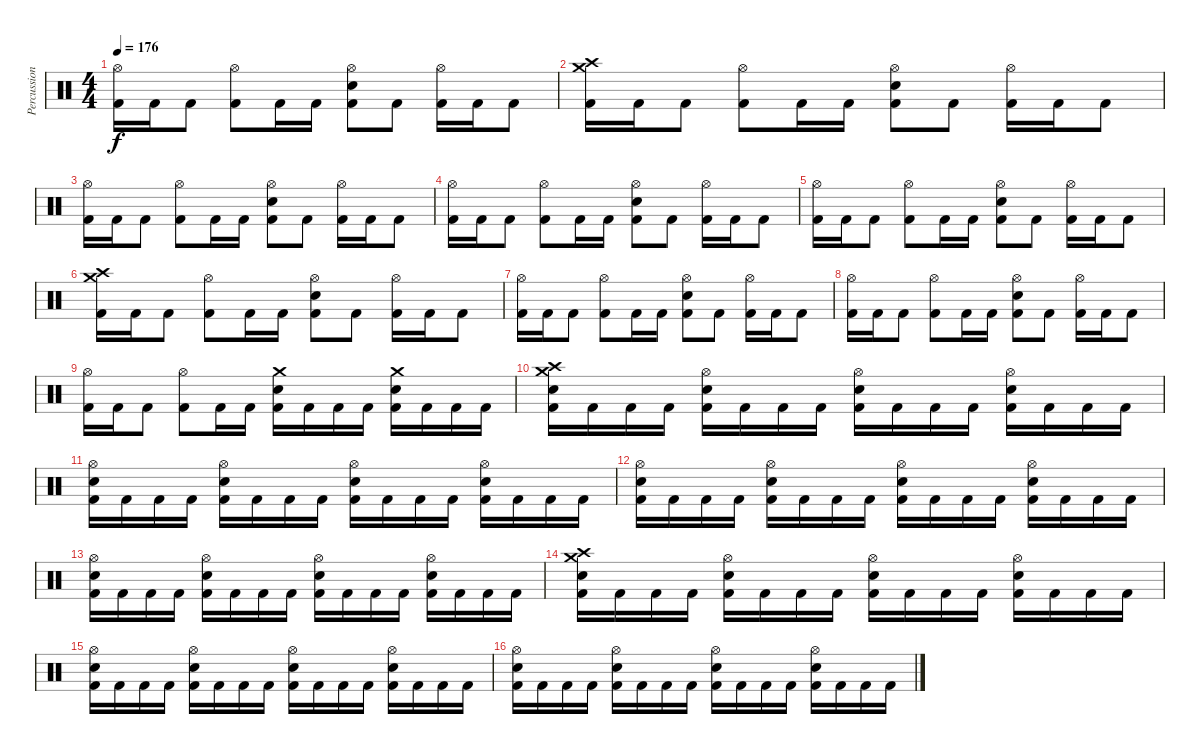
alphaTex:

\track ("Percussion" "Percussion") {instrument percussion}
\staff {score}
\articulation defaults
\ts (4 4)
\tempo 176
\clef neutral
\ks c
("Hi-Hat (open)" "Kick (hit) 2").16{dy f} "Kick (hit) 2".16 "Kick (hit) 2".8 ("Hi-Hat (open)" "Kick (hit) 2").8 "Kick (hit) 2".16 "Kick (hit) 2".16 ("Hi-Hat (open)" "Snare (hit) 2" "Kick (hit) 2").8 "Kick (hit) 2".8 ("Hi-Hat (open)" "Kick (hit) 2").16 "Kick (hit) 2".16 "Kick (hit) 2".8 |
("Crash high (hit)" "Crash medium (hit)" "Kick (hit) 2").16 "Kick (hit) 2".16 "Kick (hit) 2".8 ("Hi-Hat (open)" "Kick (hit) 2").8 "Kick (hit) 2".16 "Kick (hit) 2".16 ("Hi-Hat (open)" "Snare (hit) 2" "Kick (hit) 2").8 "Kick (hit) 2".8 ("Hi-Hat (open)" "Kick (hit) 2").16 "Kick (hit) 2".16 "Kick (hit) 2".8 |
("Hi-Hat (open)" "Kick (hit) 2").16 "Kick (hit) 2".16 "Kick (hit) 2".8 ("Hi-Hat (open)" "Kick (hit) 2").8 "Kick (hit) 2".16 "Kick (hit) 2".16 ("Hi-Hat (open)" "Snare (hit) 2" "Kick (hit) 2").8 "Kick (hit) 2".8 ("Hi-Hat (open)" "Kick (hit) 2").16 "Kick (hit) 2".16 "Kick (hit) 2".8 |
("Hi-Hat (open)" "Kick (hit) 2").16 "Kick (hit) 2".16 "Kick (hit) 2".8 ("Hi-Hat (open)" "Kick (hit) 2").8 "Kick (hit) 2".16 "Kick (hit) 2".16 ("Hi-Hat (open)" "Snare (hit) 2" "Kick (hit) 2").8 "Kick (hit) 2".8 ("Hi-Hat (open)" "Kick (hit) 2").16 "Kick (hit) 2".16 "Kick (hit) 2".8 |
("Hi-Hat (open)" "Kick (hit) 2").16 "Kick (hit) 2".16 "Kick (hit) 2".8 ("Hi-Hat (open)" "Kick (hit) 2").8 "Kick (hit) 2".16 "Kick (hit) 2".16 ("Hi-Hat (open)" "Snare (hit) 2" "Kick (hit) 2").8 "Kick (hit) 2".8 ("Hi-Hat (open)" "Kick (hit) 2").16 "Kick (hit) 2".16 "Kick (hit) 2".8 |
("Crash high (hit)" "Crash medium (hit)" "Kick (hit) 2").16 "Kick (hit) 2".16 "Kick (hit) 2".8 ("Hi-Hat (open)" "Kick (hit) 2").8 "Kick (hit) 2".16 "Kick (hit) 2".16 ("Hi-Hat (open)" "Snare (hit) 2" "Kick (hit) 2").8 "Kick (hit) 2".8 ("Hi-Hat (open)" "Kick (hit) 2").16 "Kick (hit) 2".16 "Kick (hit) 2".8 |
("Hi-Hat (open)" "Kick (hit) 2").16 "Kick (hit) 2".16 "Kick (hit) 2".8 ("Hi-Hat (open)" "Kick (hit) 2").8 "Kick (hit) 2".16 "Kick (hit) 2".16 ("Hi-Hat (open)" "Snare (hit) 2" "Kick (hit) 2").8 "Kick (hit) 2".8 ("Hi-Hat (open)" "Kick (hit) 2").16 "Kick (hit) 2".16 "Kick (hit) 2".8 |
("Hi-Hat (open)" "Kick (hit) 2").16 "Kick (hit) 2".16 "Kick (hit) 2".8 ("Hi-Hat (open)" "Kick (hit) 2").8 "Kick (hit) 2".16 "Kick (hit) 2".16 ("Hi-Hat (open)" "Snare (hit) 2" "Kick (hit) 2").8 "Kick (hit) 2".8 ("Hi-Hat (open)" "Kick (hit) 2").16 "Kick (hit) 2".16 "Kick (hit) 2".8 |
("Hi-Hat (open)" "Kick (hit) 2").16 "Kick (hit) 2".16 "Kick (hit) 2".8 ("Hi-Hat (open)" "Kick (hit) 2").8 "Kick (hit) 2".16 "Kick (hit) 2".16 ("Crash medium (hit)" "Snare (hit) 2" "Kick (hit) 2").16 "Kick (hit) 2".16 "Kick (hit) 2".16 "Kick (hit) 2".16 ("Crash medium (hit)" "Snare (hit) 2" "Kick (hit) 2").16 "Kick (hit) 2".16 "Kick (hit) 2".16 "Kick (hit) 2".16 |
("Crash high (hit)" "Crash medium (hit)" "Snare (hit) 2" "Kick (hit) 2").16 "Kick (hit) 2".16 "Kick (hit) 2".16 "Kick (hit) 2".16 ("Hi-Hat (open)" "Snare (hit) 2" "Kick (hit) 2").16 "Kick (hit) 2".16 "Kick (hit) 2".16 "Kick (hit) 2".16 ("Hi-Hat (open)" "Snare (hit) 2" "Kick (hit) 2").16 "Kick (hit) 2".16 "Kick (hit) 2".16 "Kick (hit) 2".16 ("Hi-Hat (open)" "Snare (hit) 2" "Kick (hit) 2").16 "Kick (hit) 2".16 "Kick (hit) 2".16 "Kick (hit) 2".16 |
("Hi-Hat (open)" "Snare (hit) 2" "Kick (hit) 2").16 "Kick (hit) 2".16 "Kick (hit) 2".16 "Kick (hit) 2".16 ("Hi-Hat (open)" "Snare (hit) 2" "Kick (hit) 2").16 "Kick (hit) 2".16 "Kick (hit) 2".16 "Kick (hit) 2".16 ("Hi-Hat (open)" "Snare (hit) 2" "Kick (hit) 2").16 "Kick (hit) 2".16 "Kick (hit) 2".16 "Kick (hit) 2".16 ("Hi-Hat (open)" "Snare (hit) 2" "Kick (hit) 2").16 "Kick (hit) 2".16 "Kick (hit) 2".16 "Kick (hit) 2".16 |
("Hi-Hat (open)" "Snare (hit) 2" "Kick (hit) 2").16 "Kick (hit) 2".16 "Kick (hit) 2".16 "Kick (hit) 2".16 ("Hi-Hat (open)" "Snare (hit) 2" "Kick (hit) 2").16 "Kick (hit) 2".16 "Kick (hit) 2".16 "Kick (hit) 2".16 ("Hi-Hat (open)" "Snare (hit) 2" "Kick (hit) 2").16 "Kick (hit) 2".16 "Kick (hit) 2".16 "Kick (hit) 2".16 ("Hi-Hat (open)" "Snare (hit) 2" "Kick (hit) 2").16 "Kick (hit) 2".16 "Kick (hit) 2".16 "Kick (hit) 2".16 |
("Hi-Hat (open)" "Snare (hit) 2" "Kick (hit) 2").16 "Kick (hit) 2".16 "Kick (hit) 2".16 "Kick (hit) 2".16 ("Hi-Hat (open)" "Snare (hit) 2" "Kick (hit) 2").16 "Kick (hit) 2".16 "Kick (hit) 2".16 "Kick (hit) 2".16 ("Hi-Hat (open)" "Snare (hit) 2" "Kick (hit) 2").16 "Kick (hit) 2".16 "Kick (hit) 2".16 "Kick (hit) 2".16 ("Hi-Hat (open)" "Snare (hit) 2" "Kick (hit) 2").16 "Kick (hit) 2".16 "Kick (hit) 2".16 "Kick (hit) 2".16 |
("Crash high (hit)" "Crash medium (hit)" "Snare (hit) 2" "Kick (hit) 2").16 "Kick (hit) 2".16 "Kick (hit) 2".16 "Kick (hit) 2".16 ("Hi-Hat (open)" "Snare (hit) 2" "Kick (hit) 2").16 "Kick (hit) 2".16 "Kick (hit) 2".16 "Kick (hit) 2".16 ("Hi-Hat (open)" "Snare (hit) 2" "Kick (hit) 2").16 "Kick (hit) 2".16 "Kick (hit) 2".16 "Kick (hit) 2".16 ("Hi-Hat (open)" "Snare (hit) 2" "Kick (hit) 2").16 "Kick (hit) 2".16 "Kick (hit) 2".16 "Kick (hit) 2".16 |
("Hi-Hat (open)" "Snare (hit) 2" "Kick (hit) 2").16 "Kick (hit) 2".16 "Kick (hit) 2".16 "Kick (hit) 2".16 ("Hi-Hat (open)" "Snare (hit) 2" "Kick (hit) 2").16 "Kick (hit) 2".16 "Kick (hit) 2".16 "Kick (hit) 2".16 ("Hi-Hat (open)" "Snare (hit) 2" "Kick (hit) 2").16 "Kick (hit) 2".16 "Kick (hit) 2".16 "Kick (hit) 2".16 ("Hi-Hat (open)" "Snare (hit) 2" "Kick (hit) 2").16 "Kick (hit) 2".16 "Kick (hit) 2".16 "Kick (hit) 2".16 |
("Hi-Hat (open)" "Snare (hit) 2" "Kick (hit) 2").16 "Kick (hit) 2".16 "Kick (hit) 2".16 "Kick (hit) 2".16 ("Hi-Hat (open)" "Snare (hit) 2" "Kick (hit) 2").16 "Kick (hit) 2".16 "Kick (hit) 2".16 "Kick (hit) 2".16 ("Hi-Hat (open)" "Snare (hit) 2" "Kick (hit) 2").16 "Kick (hit) 2".16 "Kick (hit) 2".16 "Kick (hit) 2".16 ("Hi-Hat (open)" "Snare (hit) 2" "Kick (hit) 2").16 "Kick (hit) 2".16 "Kick (hit) 2".16 "Kick (hit) 2".16
